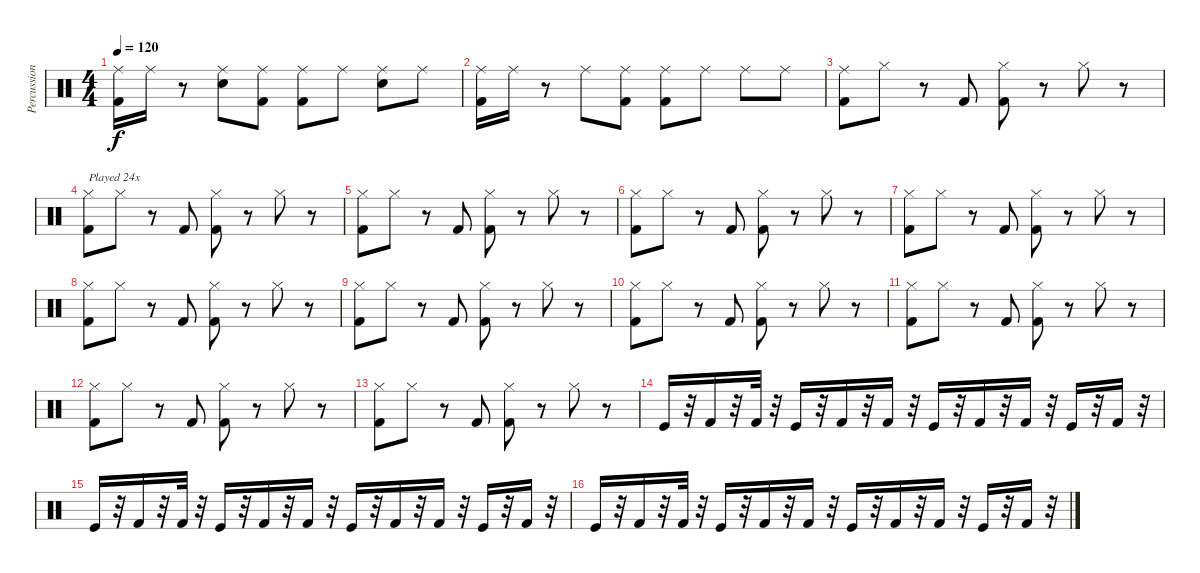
\track ("Percussioni" "Percussion") {instrument percussion}
\staff {score}
\articulation defaults
\ts (4 4)
\tempo 120
\clef neutral
\ks c
("Ride (middle)" "Kick (hit) 2").16{dy f} "Ride (middle)".16 r.8 ("Ride (middle)" "Electric Snare (hit)").8 ("Ride (middle)" "Kick (hit) 2").8 ("Ride (middle)" "Kick (hit) 2").8 "Ride (middle)".8 ("Ride (middle)" "Electric Snare (hit)").8 "Ride (middle)".8 |
("Ride (middle)" "Kick (hit) 2").16 "Ride (middle)".16 r.8 "Ride (middle)".8 ("Ride (middle)" "Kick (hit) 2").8 ("Ride (middle)" "Kick (hit) 2").8 "Ride (middle)".8 "Ride (middle)".8 "Ride (middle)".8 |
("Ride (middle)" "Kick (hit) 2").8 "Hi-Hat (closed)".8 r.8 "Kick (hit) 2".8 ("Hi-Hat (closed)" "Kick (hit) 2").8 r.8 "Hi-Hat (closed)".8 r.8 |
("Hi-Hat (closed)" "Kick (hit) 2").8{txt "Played 24x"} "Hi-Hat (closed)".8 r.8 "Kick (hit) 2".8 ("Hi-Hat (closed)" "Kick (hit) 2").8 r.8 "Hi-Hat (closed)".8 r.8 |
("Hi-Hat (closed)" "Kick (hit) 2").8 "Hi-Hat (closed)".8 r.8 "Kick (hit) 2".8 ("Hi-Hat (closed)" "Kick (hit) 2").8 r.8 "Hi-Hat (closed)".8 r.8 |
("Hi-Hat (closed)" "Kick (hit) 2").8 "Hi-Hat (closed)".8 r.8 "Kick (hit) 2".8 ("Hi-Hat (closed)" "Kick (hit) 2").8 r.8 "Hi-Hat (closed)".8 r.8 |
("Hi-Hat (closed)" "Kick (hit) 2").8 "Hi-Hat (closed)".8 r.8 "Kick (hit) 2".8 ("Hi-Hat (closed)" "Kick (hit) 2").8 r.8 "Hi-Hat (closed)".8 r.8 |
("Hi-Hat (closed)" "Kick (hit) 2").8 "Hi-Hat (closed)".8 r.8 "Kick (hit) 2".8 ("Hi-Hat (closed)" "Kick (hit) 2").8 r.8 "Hi-Hat (closed)".8 r.8 |
("Hi-Hat (closed)" "Kick (hit) 2").8 "Hi-Hat (closed)".8 r.8 "Kick (hit) 2".8 ("Hi-Hat (closed)" "Kick (hit) 2").8 r.8 "Hi-Hat (closed)".8 r.8 |
("Hi-Hat (closed)" "Kick (hit) 2").8 "Hi-Hat (closed)".8 r.8 "Kick (hit) 2".8 ("Hi-Hat (closed)" "Kick (hit) 2").8 r.8 "Hi-Hat (closed)".8 r.8 |
("Hi-Hat (closed)" "Kick (hit) 2").8 "Hi-Hat (closed)".8 r.8 "Kick (hit) 2".8 ("Hi-Hat (closed)" "Kick (hit) 2").8 r.8 "Hi-Hat (closed)".8 r.8 |
("Hi-Hat (closed)" "Kick (hit) 2").8 "Hi-Hat (closed)".8 r.8 "Kick (hit) 2".8 ("Hi-Hat (closed)" "Kick (hit) 2").8 r.8 "Hi-Hat (closed)".8 r.8 |
("Hi-Hat (closed)" "Kick (hit) 2").8 "Hi-Hat (closed)".8 r.8 "Kick (hit) 2".8 ("Hi-Hat (closed)" "Kick (hit) 2").8 r.8 "Hi-Hat (closed)".8 r.8 |
"Kick (hit)".16 r.32 "Kick (hit) 2".16 r.32 "Kick (hit) 2".32 r.32 "Kick (hit)".16 r.32 "Kick (hit) 2".16 r.32 "Kick (hit) 2".16 r.32 "Kick (hit)".16 r.32 "Kick (hit) 2".16 r.32 "Kick (hit) 2".16 r.32 "Kick (hit)".16 r.32 "Kick (hit) 2".16 r.32 |
"Kick (hit)".16 r.32 "Kick (hit) 2".16 r.32 "Kick (hit) 2".32 r.32 "Kick (hit)".16 r.32 "Kick (hit) 2".16 r.32 "Kick (hit) 2".16 r.32 "Kick (hit)".16 r.32 "Kick (hit) 2".16 r.32 "Kick (hit) 2".16 r.32 "Kick (hit)".16 r.32 "Kick (hit) 2".16 r.32 |
"Kick (hit)".16 r.32 "Kick (hit) 2".16 r.32 "Kick (hit) 2".32 r.32 "Kick (hit)".16 r.32 "Kick (hit) 2".16 r.32 "Kick (hit) 2".16 r.32 "Kick (hit)".16 r.32 "Kick (hit) 2".16 r.32 "Kick (hit) 2".16 r.32 "Kick (hit)".16 r.32 "Kick (hit) 2".16 r.32
